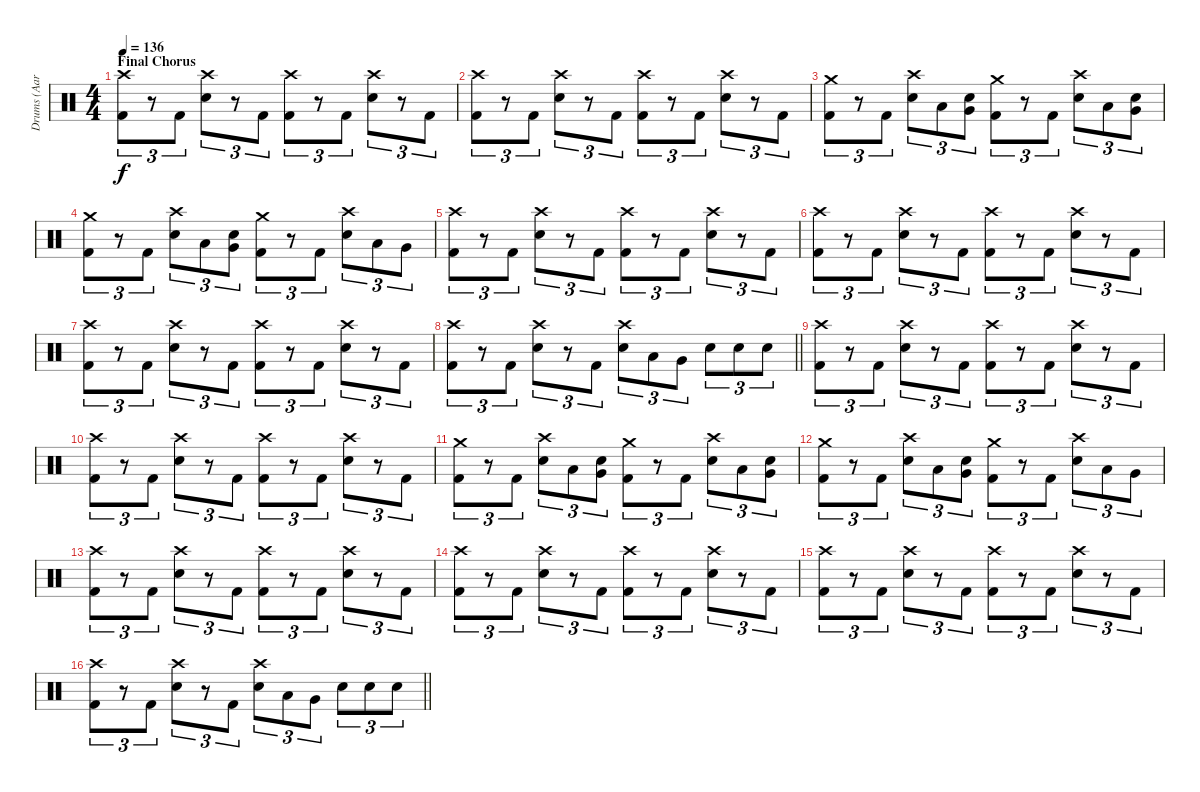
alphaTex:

\track ("Drums (Aaron Solowoniuk)" "Drums (Aar") {instrument percussion}
\staff {score}
\articulation defaults
\ts (4 4)
\section ("" "Final Chorus")
\tempo 136
\clef neutral
\ks c
("Kick (hit) 2" "Crash high (hit)").8{tu (3 2) dy f} r.8{tu (3 2)} "Kick (hit) 2".8{tu (3 2)} ("Electric Snare (hit)" "Crash high (hit)").8{tu (3 2)} r.8{tu (3 2)} "Kick (hit) 2".8{tu (3 2)} ("Kick (hit) 2" "Crash high (hit)").8{tu (3 2)} r.8{tu (3 2)} "Kick (hit) 2".8{tu (3 2)} ("Electric Snare (hit)" "Crash high (hit)").8{tu (3 2)} r.8{tu (3 2)} "Kick (hit) 2".8{tu (3 2)} |
("Kick (hit) 2" "Crash high (hit)").8{tu (3 2)} r.8{tu (3 2)} "Kick (hit) 2".8{tu (3 2)} ("Electric Snare (hit)" "Crash high (hit)").8{tu (3 2)} r.8{tu (3 2)} "Kick (hit) 2".8{tu (3 2)} ("Kick (hit) 2" "Crash high (hit)").8{tu (3 2)} r.8{tu (3 2)} "Kick (hit) 2".8{tu (3 2)} ("Electric Snare (hit)" "Crash high (hit)").8{tu (3 2)} r.8{tu (3 2)} "Kick (hit) 2".8{tu (3 2)} |
("Crash medium (hit)" "Kick (hit) 2").8{tu (3 2)} r.8{tu (3 2)} "Kick (hit) 2".8{tu (3 2)} ("Crash high (hit)" "Electric Snare (hit)").8{tu (3 2)} "Low Tom (hit)".8{tu (3 2)} ("Electric Snare (hit)" "Very Low Tom (hit)").8{tu (3 2)} ("Crash medium (hit)" "Kick (hit) 2").8{tu (3 2)} r.8{tu (3 2)} "Kick (hit) 2".8{tu (3 2)} ("Crash high (hit)" "Electric Snare (hit)").8{tu (3 2)} "Low Tom (hit)".8{tu (3 2)} ("Electric Snare (hit)" "Very Low Tom (hit)").8{tu (3 2)} |
("Crash medium (hit)" "Kick (hit) 2").8{tu (3 2)} r.8{tu (3 2)} "Kick (hit) 2".8{tu (3 2)} ("Crash high (hit)" "Electric Snare (hit)").8{tu (3 2)} "Low Tom (hit)".8{tu (3 2)} ("Electric Snare (hit)" "Very Low Tom (hit)").8{tu (3 2)} ("Crash medium (hit)" "Kick (hit) 2").8{tu (3 2)} r.8{tu (3 2)} "Kick (hit) 2".8{tu (3 2)} ("Crash high (hit)" "Electric Snare (hit)").8{tu (3 2)} "Low Tom (hit)".8{tu (3 2)} "Very Low Tom (hit)".8{tu (3 2)} |
("Crash high (hit)" "Kick (hit) 2").8{tu (3 2)} r.8{tu (3 2)} "Kick (hit) 2".8{tu (3 2)} ("Crash high (hit)" "Electric Snare (hit)").8{tu (3 2)} r.8{tu (3 2)} "Kick (hit) 2".8{tu (3 2)} ("Crash high (hit)" "Kick (hit) 2").8{tu (3 2)} r.8{tu (3 2)} "Kick (hit) 2".8{tu (3 2)} ("Crash high (hit)" "Electric Snare (hit)").8{tu (3 2)} r.8{tu (3 2)} "Kick (hit) 2".8{tu (3 2)} |
("Crash high (hit)" "Kick (hit) 2").8{tu (3 2)} r.8{tu (3 2)} "Kick (hit) 2".8{tu (3 2)} ("Crash high (hit)" "Electric Snare (hit)").8{tu (3 2)} r.8{tu (3 2)} "Kick (hit) 2".8{tu (3 2)} ("Crash high (hit)" "Kick (hit) 2").8{tu (3 2)} r.8{tu (3 2)} "Kick (hit) 2".8{tu (3 2)} ("Crash high (hit)" "Electric Snare (hit)").8{tu (3 2)} r.8{tu (3 2)} "Kick (hit) 2".8{tu (3 2)} |
("Crash high (hit)" "Kick (hit) 2").8{tu (3 2)} r.8{tu (3 2)} "Kick (hit) 2".8{tu (3 2)} ("Crash high (hit)" "Electric Snare (hit)").8{tu (3 2)} r.8{tu (3 2)} "Kick (hit) 2".8{tu (3 2)} ("Crash high (hit)" "Kick (hit) 2").8{tu (3 2)} r.8{tu (3 2)} "Kick (hit) 2".8{tu (3 2)} ("Crash high (hit)" "Electric Snare (hit)").8{tu (3 2)} r.8{tu (3 2)} "Kick (hit) 2".8{tu (3 2)} |
\barLineRight lightlight
("Kick (hit) 2" "Crash high (hit)").8{tu (3 2)} r.8{tu (3 2)} "Kick (hit) 2".8{tu (3 2)} ("Electric Snare (hit)" "Crash high (hit)").8{tu (3 2)} r.8{tu (3 2)} "Kick (hit) 2".8{tu (3 2)} ("Electric Snare (hit)" "Crash high (hit)").8{tu (3 2)} "Low Tom (hit)".8{tu (3 2)} "Very Low Tom (hit)".8{tu (3 2)} "Electric Snare (hit)".8{tu (3 2)} "Electric Snare (hit)".8{tu (3 2)} "Electric Snare (hit)".8{tu (3 2)} |
("Kick (hit) 2" "Crash high (hit)").8{tu (3 2)} r.8{tu (3 2)} "Kick (hit) 2".8{tu (3 2)} ("Electric Snare (hit)" "Crash high (hit)").8{tu (3 2)} r.8{tu (3 2)} "Kick (hit) 2".8{tu (3 2)} ("Kick (hit) 2" "Crash high (hit)").8{tu (3 2)} r.8{tu (3 2)} "Kick (hit) 2".8{tu (3 2)} ("Electric Snare (hit)" "Crash high (hit)").8{tu (3 2)} r.8{tu (3 2)} "Kick (hit) 2".8{tu (3 2)} |
("Kick (hit) 2" "Crash high (hit)").8{tu (3 2)} r.8{tu (3 2)} "Kick (hit) 2".8{tu (3 2)} ("Electric Snare (hit)" "Crash high (hit)").8{tu (3 2)} r.8{tu (3 2)} "Kick (hit) 2".8{tu (3 2)} ("Kick (hit) 2" "Crash high (hit)").8{tu (3 2)} r.8{tu (3 2)} "Kick (hit) 2".8{tu (3 2)} ("Electric Snare (hit)" "Crash high (hit)").8{tu (3 2)} r.8{tu (3 2)} "Kick (hit) 2".8{tu (3 2)} |
("Crash medium (hit)" "Kick (hit) 2").8{tu (3 2)} r.8{tu (3 2)} "Kick (hit) 2".8{tu (3 2)} ("Crash high (hit)" "Electric Snare (hit)").8{tu (3 2)} "Low Tom (hit)".8{tu (3 2)} ("Electric Snare (hit)" "Very Low Tom (hit)").8{tu (3 2)} ("Crash medium (hit)" "Kick (hit) 2").8{tu (3 2)} r.8{tu (3 2)} "Kick (hit) 2".8{tu (3 2)} ("Crash high (hit)" "Electric Snare (hit)").8{tu (3 2)} "Low Tom (hit)".8{tu (3 2)} ("Electric Snare (hit)" "Very Low Tom (hit)").8{tu (3 2)} |
("Crash medium (hit)" "Kick (hit) 2").8{tu (3 2)} r.8{tu (3 2)} "Kick (hit) 2".8{tu (3 2)} ("Crash high (hit)" "Electric Snare (hit)").8{tu (3 2)} "Low Tom (hit)".8{tu (3 2)} ("Electric Snare (hit)" "Very Low Tom (hit)").8{tu (3 2)} ("Crash medium (hit)" "Kick (hit) 2").8{tu (3 2)} r.8{tu (3 2)} "Kick (hit) 2".8{tu (3 2)} ("Crash high (hit)" "Electric Snare (hit)").8{tu (3 2)} "Low Tom (hit)".8{tu (3 2)} "Very Low Tom (hit)".8{tu (3 2)} |
("Crash high (hit)" "Kick (hit) 2").8{tu (3 2)} r.8{tu (3 2)} "Kick (hit) 2".8{tu (3 2)} ("Crash high (hit)" "Electric Snare (hit)").8{tu (3 2)} r.8{tu (3 2)} "Kick (hit) 2".8{tu (3 2)} ("Crash high (hit)" "Kick (hit) 2").8{tu (3 2)} r.8{tu (3 2)} "Kick (hit) 2".8{tu (3 2)} ("Crash high (hit)" "Electric Snare (hit)").8{tu (3 2)} r.8{tu (3 2)} "Kick (hit) 2".8{tu (3 2)} |
("Crash high (hit)" "Kick (hit) 2").8{tu (3 2)} r.8{tu (3 2)} "Kick (hit) 2".8{tu (3 2)} ("Crash high (hit)" "Electric Snare (hit)").8{tu (3 2)} r.8{tu (3 2)} "Kick (hit) 2".8{tu (3 2)} ("Crash high (hit)" "Kick (hit) 2").8{tu (3 2)} r.8{tu (3 2)} "Kick (hit) 2".8{tu (3 2)} ("Crash high (hit)" "Electric Snare (hit)").8{tu (3 2)} r.8{tu (3 2)} "Kick (hit) 2".8{tu (3 2)} |
("Crash high (hit)" "Kick (hit) 2").8{tu (3 2)} r.8{tu (3 2)} "Kick (hit) 2".8{tu (3 2)} ("Crash high (hit)" "Electric Snare (hit)").8{tu (3 2)} r.8{tu (3 2)} "Kick (hit) 2".8{tu (3 2)} ("Crash high (hit)" "Kick (hit) 2").8{tu (3 2)} r.8{tu (3 2)} "Kick (hit) 2".8{tu (3 2)} ("Crash high (hit)" "Electric Snare (hit)").8{tu (3 2)} r.8{tu (3 2)} "Kick (hit) 2".8{tu (3 2)} |
\barLineRight lightlight
("Kick (hit) 2" "Crash high (hit)").8{tu (3 2)} r.8{tu (3 2)} "Kick (hit) 2".8{tu (3 2)} ("Electric Snare (hit)" "Crash high (hit)").8{tu (3 2)} r.8{tu (3 2)} "Kick (hit) 2".8{tu (3 2)} ("Electric Snare (hit)" "Crash high (hit)").8{tu (3 2)} "Low Tom (hit)".8{tu (3 2)} "Very Low Tom (hit)".8{tu (3 2)} "Electric Snare (hit)".8{tu (3 2)} "Electric Snare (hit)".8{tu (3 2)} "Electric Snare (hit)".8{tu (3 2)}
